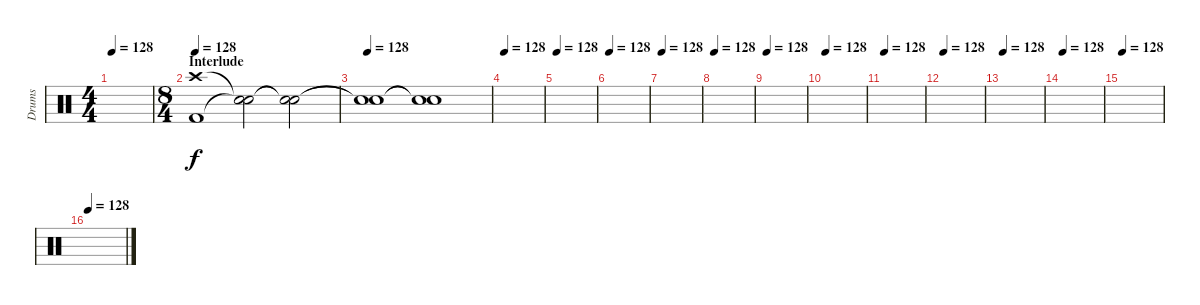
\track ("Drums" "Drums") {instrument percussion}
\staff {score}
\articulation defaults
\ts (4 4)
\tempo 128
\clef neutral
\ks c
|
\ts (8 4)
\section ("" "Interlude")
\tempo 128
("Crash high (hit)" "Kick (hit) 2").1 ("Snare (hit)"{t} "Snare (hit)"{t}).2 ("Snare (hit)"{t} "Snare (hit)"{t}).2 |
\tempo 128
("Snare (hit)"{t} "Snare (hit)"{t}).1 ("Snare (hit)"{t} "Snare (hit)"{t}).1 |
\tempo 128
|
\tempo 128
|
\tempo 128
|
\tempo 128
|
\tempo 128
|
\tempo 128
|
\tempo 128
|
\tempo 128
|
\tempo 128
|
\tempo 128
|
\tempo 128
|
\tempo 128
|
\tempo 128
